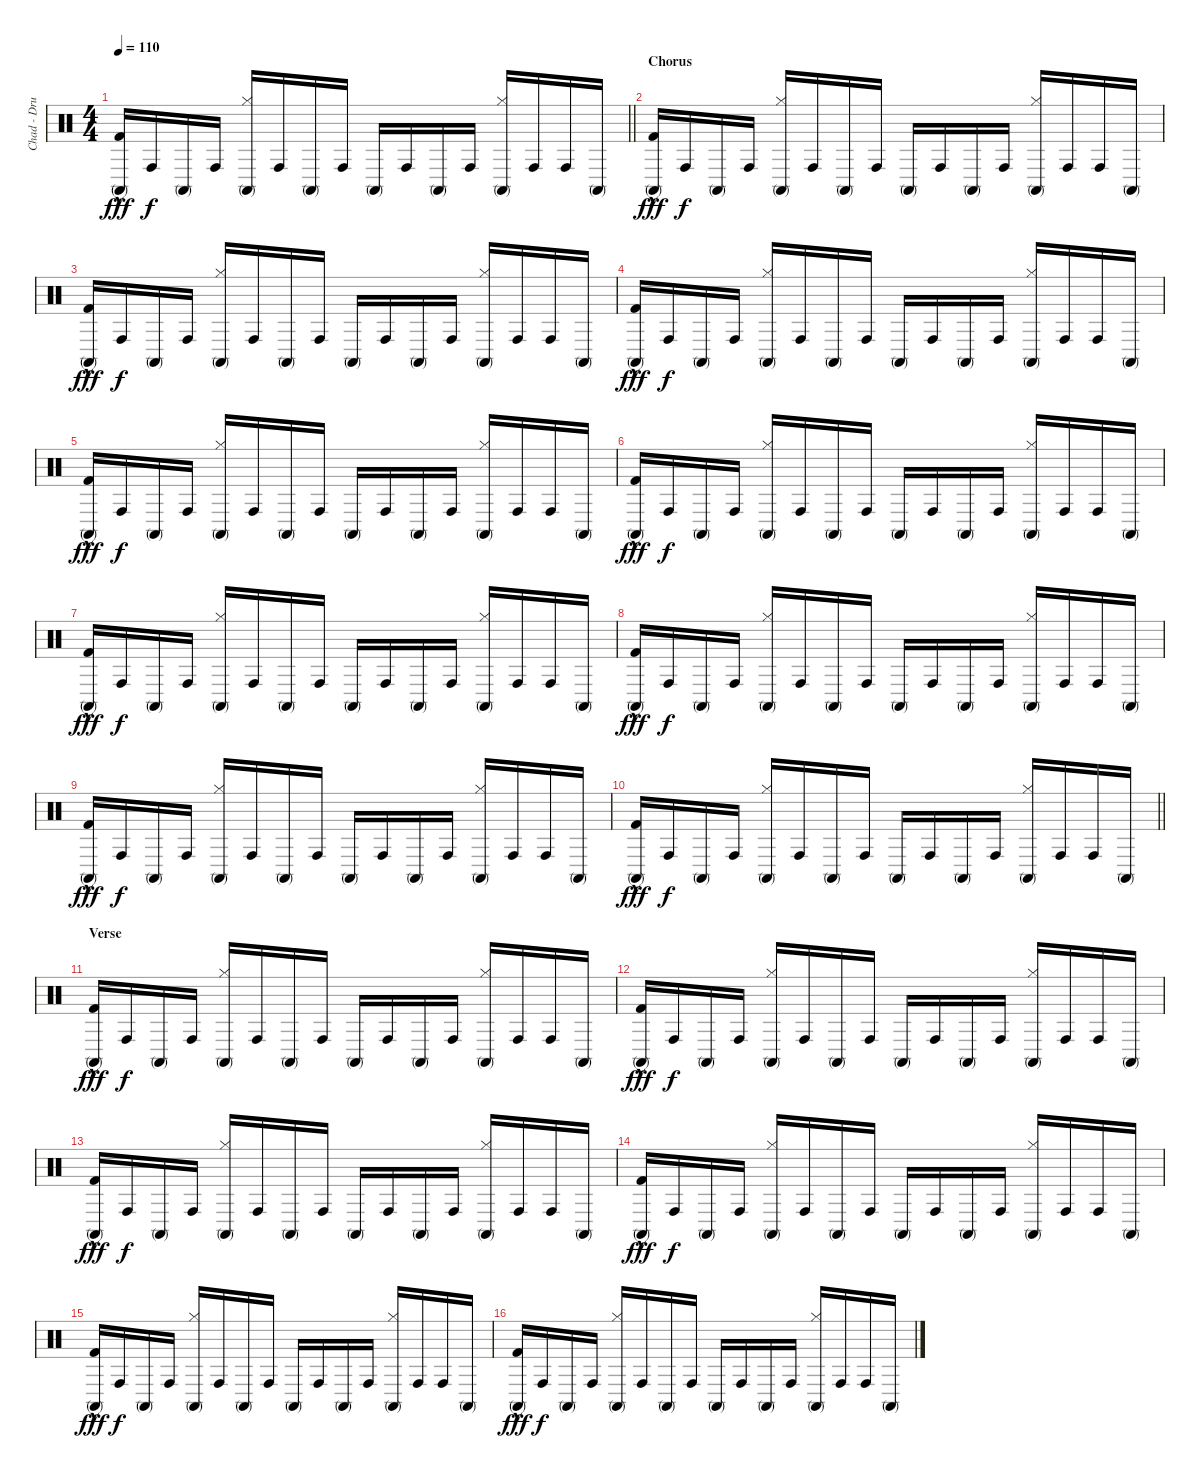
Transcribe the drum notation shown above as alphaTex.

\track ("Chad - Drums" "Chad - Dru") {instrument percussion}
\staff {score}
\articulation defaults
\ts (4 4)
\tempo 110
\clef neutral
\barLineRight lightlight
\ks c
("Conga high (mute)" "Kick (hit) 2"{hac}).16{dy fff} "Conga high (hit)".16{dy f} "Conga high (mute)".16 "Conga high (hit)".16 ("Conga high (mute)" "Hi-Hat (closed)").16 "Conga high (hit)".16 "Conga high (mute)".16 "Conga high (hit)".16 "Conga high (mute)".16 "Conga high (hit)".16 "Conga high (mute)".16 "Conga high (hit)".16 ("Conga high (mute)" "Hi-Hat (closed)").16 "Conga high (hit)".16 "Conga high (hit)".16 "Conga high (mute)".16 |
\section ("" "Chorus")
("Conga high (mute)" "Kick (hit) 2"{hac}).16{dy fff} "Conga high (hit)".16{dy f} "Conga high (mute)".16 "Conga high (hit)".16 ("Conga high (mute)" "Hi-Hat (closed)").16 "Conga high (hit)".16 "Conga high (mute)".16 "Conga high (hit)".16 "Conga high (mute)".16 "Conga high (hit)".16 "Conga high (mute)".16 "Conga high (hit)".16 ("Conga high (mute)" "Hi-Hat (closed)").16 "Conga high (hit)".16 "Conga high (hit)".16 "Conga high (mute)".16 |
("Conga high (mute)" "Kick (hit) 2"{hac}).16{dy fff} "Conga high (hit)".16{dy f} "Conga high (mute)".16 "Conga high (hit)".16 ("Conga high (mute)" "Hi-Hat (closed)").16 "Conga high (hit)".16 "Conga high (mute)".16 "Conga high (hit)".16 "Conga high (mute)".16 "Conga high (hit)".16 "Conga high (mute)".16 "Conga high (hit)".16 ("Conga high (mute)" "Hi-Hat (closed)").16 "Conga high (hit)".16 "Conga high (hit)".16 "Conga high (mute)".16 |
("Conga high (mute)" "Kick (hit) 2"{hac}).16{dy fff} "Conga high (hit)".16{dy f} "Conga high (mute)".16 "Conga high (hit)".16 ("Conga high (mute)" "Hi-Hat (closed)").16 "Conga high (hit)".16 "Conga high (mute)".16 "Conga high (hit)".16 "Conga high (mute)".16 "Conga high (hit)".16 "Conga high (mute)".16 "Conga high (hit)".16 ("Conga high (mute)" "Hi-Hat (closed)").16 "Conga high (hit)".16 "Conga high (hit)".16 "Conga high (mute)".16 |
("Conga high (mute)" "Kick (hit) 2"{hac}).16{dy fff} "Conga high (hit)".16{dy f} "Conga high (mute)".16 "Conga high (hit)".16 ("Conga high (mute)" "Hi-Hat (closed)").16 "Conga high (hit)".16 "Conga high (mute)".16 "Conga high (hit)".16 "Conga high (mute)".16 "Conga high (hit)".16 "Conga high (mute)".16 "Conga high (hit)".16 ("Conga high (mute)" "Hi-Hat (closed)").16 "Conga high (hit)".16 "Conga high (hit)".16 "Conga high (mute)".16 |
("Conga high (mute)" "Kick (hit) 2"{hac}).16{dy fff} "Conga high (hit)".16{dy f} "Conga high (mute)".16 "Conga high (hit)".16 ("Conga high (mute)" "Hi-Hat (closed)").16 "Conga high (hit)".16 "Conga high (mute)".16 "Conga high (hit)".16 "Conga high (mute)".16 "Conga high (hit)".16 "Conga high (mute)".16 "Conga high (hit)".16 ("Conga high (mute)" "Hi-Hat (closed)").16 "Conga high (hit)".16 "Conga high (hit)".16 "Conga high (mute)".16 |
("Conga high (mute)" "Kick (hit) 2"{hac}).16{dy fff} "Conga high (hit)".16{dy f} "Conga high (mute)".16 "Conga high (hit)".16 ("Conga high (mute)" "Hi-Hat (closed)").16 "Conga high (hit)".16 "Conga high (mute)".16 "Conga high (hit)".16 "Conga high (mute)".16 "Conga high (hit)".16 "Conga high (mute)".16 "Conga high (hit)".16 ("Conga high (mute)" "Hi-Hat (closed)").16 "Conga high (hit)".16 "Conga high (hit)".16 "Conga high (mute)".16 |
("Conga high (mute)" "Kick (hit) 2"{hac}).16{dy fff} "Conga high (hit)".16{dy f} "Conga high (mute)".16 "Conga high (hit)".16 ("Conga high (mute)" "Hi-Hat (closed)").16 "Conga high (hit)".16 "Conga high (mute)".16 "Conga high (hit)".16 "Conga high (mute)".16 "Conga high (hit)".16 "Conga high (mute)".16 "Conga high (hit)".16 ("Conga high (mute)" "Hi-Hat (closed)").16 "Conga high (hit)".16 "Conga high (hit)".16 "Conga high (mute)".16 |
("Conga high (mute)" "Kick (hit) 2"{hac}).16{dy fff} "Conga high (hit)".16{dy f} "Conga high (mute)".16 "Conga high (hit)".16 ("Conga high (mute)" "Hi-Hat (closed)").16 "Conga high (hit)".16 "Conga high (mute)".16 "Conga high (hit)".16 "Conga high (mute)".16 "Conga high (hit)".16 "Conga high (mute)".16 "Conga high (hit)".16 ("Conga high (mute)" "Hi-Hat (closed)").16 "Conga high (hit)".16 "Conga high (hit)".16 "Conga high (mute)".16 |
\barLineRight lightlight
("Conga high (mute)" "Kick (hit) 2"{hac}).16{dy fff} "Conga high (hit)".16{dy f} "Conga high (mute)".16 "Conga high (hit)".16 ("Conga high (mute)" "Hi-Hat (closed)").16 "Conga high (hit)".16 "Conga high (mute)".16 "Conga high (hit)".16 "Conga high (mute)".16 "Conga high (hit)".16 "Conga high (mute)".16 "Conga high (hit)".16 ("Conga high (mute)" "Hi-Hat (closed)").16 "Conga high (hit)".16 "Conga high (hit)".16 "Conga high (mute)".16 |
\section ("" "Verse")
("Conga high (mute)" "Kick (hit) 2"{hac}).16{dy fff} "Conga high (hit)".16{dy f} "Conga high (mute)".16 "Conga high (hit)".16 ("Conga high (mute)" "Hi-Hat (closed)").16 "Conga high (hit)".16 "Conga high (mute)".16 "Conga high (hit)".16 "Conga high (mute)".16 "Conga high (hit)".16 "Conga high (mute)".16 "Conga high (hit)".16 ("Conga high (mute)" "Hi-Hat (closed)").16 "Conga high (hit)".16 "Conga high (hit)".16 "Conga high (mute)".16 |
("Conga high (mute)" "Kick (hit) 2"{hac}).16{dy fff} "Conga high (hit)".16{dy f} "Conga high (mute)".16 "Conga high (hit)".16 ("Conga high (mute)" "Hi-Hat (closed)").16 "Conga high (hit)".16 "Conga high (mute)".16 "Conga high (hit)".16 "Conga high (mute)".16 "Conga high (hit)".16 "Conga high (mute)".16 "Conga high (hit)".16 ("Conga high (mute)" "Hi-Hat (closed)").16 "Conga high (hit)".16 "Conga high (hit)".16 "Conga high (mute)".16 |
("Conga high (mute)" "Kick (hit) 2"{hac}).16{dy fff} "Conga high (hit)".16{dy f} "Conga high (mute)".16 "Conga high (hit)".16 ("Conga high (mute)" "Hi-Hat (closed)").16 "Conga high (hit)".16 "Conga high (mute)".16 "Conga high (hit)".16 "Conga high (mute)".16 "Conga high (hit)".16 "Conga high (mute)".16 "Conga high (hit)".16 ("Conga high (mute)" "Hi-Hat (closed)").16 "Conga high (hit)".16 "Conga high (hit)".16 "Conga high (mute)".16 |
("Conga high (mute)" "Kick (hit) 2"{hac}).16{dy fff} "Conga high (hit)".16{dy f} "Conga high (mute)".16 "Conga high (hit)".16 ("Conga high (mute)" "Hi-Hat (closed)").16 "Conga high (hit)".16 "Conga high (mute)".16 "Conga high (hit)".16 "Conga high (mute)".16 "Conga high (hit)".16 "Conga high (mute)".16 "Conga high (hit)".16 ("Conga high (mute)" "Hi-Hat (closed)").16 "Conga high (hit)".16 "Conga high (hit)".16 "Conga high (mute)".16 |
("Conga high (mute)" "Kick (hit) 2"{hac}).16{dy fff} "Conga high (hit)".16{dy f} "Conga high (mute)".16 "Conga high (hit)".16 ("Conga high (mute)" "Hi-Hat (closed)").16 "Conga high (hit)".16 "Conga high (mute)".16 "Conga high (hit)".16 "Conga high (mute)".16 "Conga high (hit)".16 "Conga high (mute)".16 "Conga high (hit)".16 ("Conga high (mute)" "Hi-Hat (closed)").16 "Conga high (hit)".16 "Conga high (hit)".16 "Conga high (mute)".16 |
("Conga high (mute)" "Kick (hit) 2"{hac}).16{dy fff} "Conga high (hit)".16{dy f} "Conga high (mute)".16 "Conga high (hit)".16 ("Conga high (mute)" "Hi-Hat (closed)").16 "Conga high (hit)".16 "Conga high (mute)".16 "Conga high (hit)".16 "Conga high (mute)".16 "Conga high (hit)".16 "Conga high (mute)".16 "Conga high (hit)".16 ("Conga high (mute)" "Hi-Hat (closed)").16 "Conga high (hit)".16 "Conga high (hit)".16 "Conga high (mute)".16
